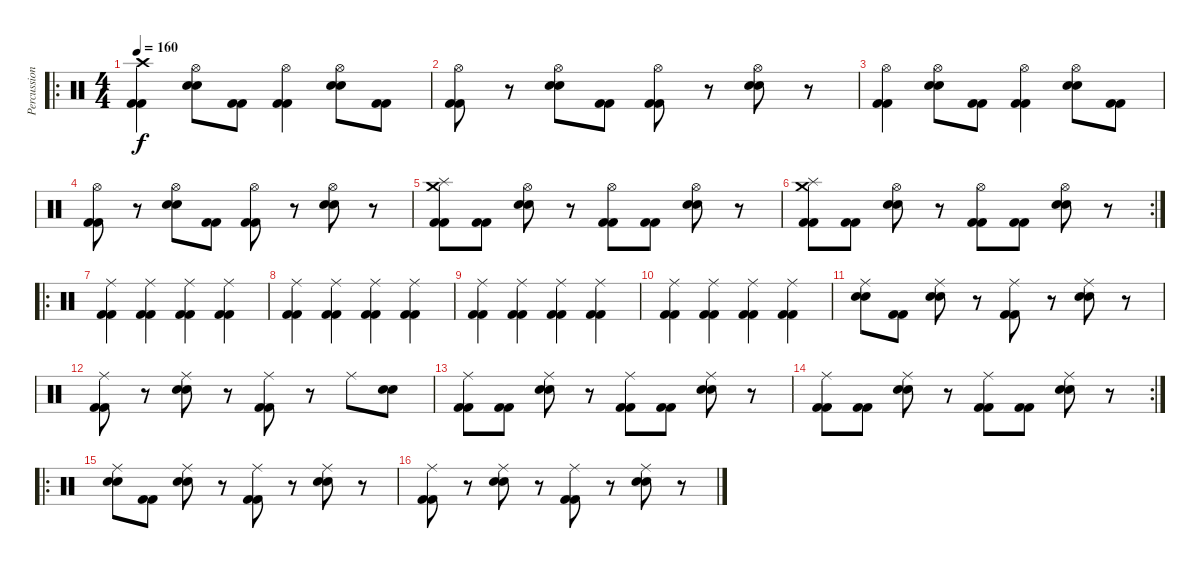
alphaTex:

\track ("Percussion" "Percussion") {instrument percussion}
\staff {score}
\articulation defaults
\ro
\ts (4 4)
\tempo 160
\clef neutral
\ks c
("Crash high (hit)" "Kick (hit) 2" "Kick (hit) 2").4{dy f} ("Hi-Hat (open)" "Snare (hit) 2" "Snare (hit) 2").8 ("Kick (hit) 2" "Kick (hit) 2").8 ("Hi-Hat (open)" "Kick (hit) 2" "Kick (hit) 2").4 ("Hi-Hat (open)" "Snare (hit) 2" "Snare (hit) 2").8 ("Kick (hit) 2" "Kick (hit) 2").8 |
("Hi-Hat (open)" "Kick (hit) 2" "Kick (hit) 2").8 r.8 ("Hi-Hat (open)" "Snare (hit) 2" "Snare (hit) 2").8 ("Kick (hit) 2" "Kick (hit) 2").8 ("Hi-Hat (open)" "Kick (hit) 2" "Kick (hit) 2").8 r.8 ("Hi-Hat (open)" "Snare (hit) 2" "Snare (hit) 2").8 r.8 |
("Hi-Hat (open)" "Kick (hit) 2" "Kick (hit) 2").4 ("Hi-Hat (open)" "Snare (hit) 2" "Snare (hit) 2").8 ("Kick (hit) 2" "Kick (hit) 2").8 ("Hi-Hat (open)" "Kick (hit) 2" "Kick (hit) 2").4 ("Hi-Hat (open)" "Snare (hit) 2" "Snare (hit) 2").8 ("Kick (hit) 2" "Kick (hit) 2").8 |
("Hi-Hat (open)" "Kick (hit) 2" "Kick (hit) 2").8 r.8 ("Hi-Hat (open)" "Snare (hit) 2" "Snare (hit) 2").8 ("Kick (hit) 2" "Kick (hit) 2").8 ("Hi-Hat (open)" "Kick (hit) 2" "Kick (hit) 2").8 r.8 ("Hi-Hat (open)" "Snare (hit) 2" "Snare (hit) 2").8 r.8 |
("Crash medium (hit)" "Splash (hit)" "Kick (hit) 2" "Kick (hit) 2").8 ("Kick (hit) 2" "Kick (hit) 2").8 ("Hi-Hat (open)" "Snare (hit) 2" "Snare (hit) 2").8 r.8 ("Hi-Hat (open)" "Kick (hit) 2" "Kick (hit) 2").8 ("Kick (hit) 2" "Kick (hit) 2").8 ("Hi-Hat (open)" "Snare (hit) 2" "Snare (hit) 2").8 r.8 |
\rc 2
("Crash medium (hit)" "Splash (hit)" "Kick (hit) 2" "Kick (hit) 2").8 ("Kick (hit) 2" "Kick (hit) 2").8 ("Hi-Hat (open)" "Snare (hit) 2" "Snare (hit) 2").8 r.8 ("Hi-Hat (open)" "Kick (hit) 2" "Kick (hit) 2").8 ("Kick (hit) 2" "Kick (hit) 2").8 ("Hi-Hat (open)" "Snare (hit) 2" "Snare (hit) 2").8 r.8 |
\ro
("Ride (middle)" "Kick (hit) 2" "Kick (hit) 2").4 ("Ride (middle)" "Kick (hit) 2" "Kick (hit) 2").4 ("Ride (middle)" "Kick (hit) 2" "Kick (hit) 2").4 ("Ride (middle)" "Kick (hit) 2" "Kick (hit) 2").4 |
("Ride (middle)" "Kick (hit) 2" "Kick (hit) 2").4 ("Ride (middle)" "Kick (hit) 2" "Kick (hit) 2").4 ("Ride (middle)" "Kick (hit) 2" "Kick (hit) 2").4 ("Ride (middle)" "Kick (hit) 2" "Kick (hit) 2").4 |
("Ride (middle)" "Kick (hit) 2" "Kick (hit) 2").4 ("Ride (middle)" "Kick (hit) 2" "Kick (hit) 2").4 ("Ride (middle)" "Kick (hit) 2" "Kick (hit) 2").4 ("Ride (middle)" "Kick (hit) 2" "Kick (hit) 2").4 |
("Ride (middle)" "Kick (hit) 2" "Kick (hit) 2").4 ("Ride (middle)" "Kick (hit) 2" "Kick (hit) 2").4 ("Ride (middle)" "Kick (hit) 2" "Kick (hit) 2").4 ("Ride (middle)" "Kick (hit) 2" "Kick (hit) 2").4 |
("Ride (middle)" "Snare (hit) 2" "Snare (hit) 2").8 ("Kick (hit) 2" "Kick (hit) 2").8 ("Ride (middle)" "Snare (hit) 2" "Snare (hit) 2").8 r.8 ("Ride (middle)" "Kick (hit) 2" "Kick (hit) 2").8 r.8 ("Ride (middle)" "Snare (hit) 2" "Snare (hit) 2").8 r.8 |
("Ride (middle)" "Kick (hit) 2" "Kick (hit) 2").8 r.8 ("Ride (middle)" "Snare (hit) 2" "Snare (hit) 2").8 r.8 ("Ride (middle)" "Kick (hit) 2" "Kick (hit) 2").8 r.8 "Ride (middle)".8 ("Snare (hit) 2" "Snare (hit) 2").8 |
("Ride (middle)" "Kick (hit) 2" "Kick (hit) 2").8 ("Kick (hit) 2" "Kick (hit) 2").8 ("Ride (middle)" "Snare (hit) 2" "Snare (hit) 2").8 r.8 ("Ride (middle)" "Kick (hit) 2" "Kick (hit) 2").8 ("Kick (hit) 2" "Kick (hit) 2").8 ("Ride (middle)" "Snare (hit) 2" "Snare (hit) 2").8 r.8 |
\rc 2
("Ride (middle)" "Kick (hit) 2" "Kick (hit) 2").8 ("Kick (hit) 2" "Kick (hit) 2").8 ("Ride (middle)" "Snare (hit) 2" "Snare (hit) 2").8 r.8 ("Ride (middle)" "Kick (hit) 2" "Kick (hit) 2").8 ("Kick (hit) 2" "Kick (hit) 2").8 ("Ride (middle)" "Snare (hit) 2" "Snare (hit) 2").8 r.8 |
\ro
("Ride (middle)" "Snare (hit) 2" "Snare (hit) 2").8 ("Kick (hit) 2" "Kick (hit) 2").8 ("Ride (middle)" "Snare (hit) 2" "Snare (hit) 2").8 r.8 ("Ride (middle)" "Kick (hit) 2" "Kick (hit) 2").8 r.8 ("Ride (middle)" "Snare (hit) 2" "Snare (hit) 2").8 r.8 |
("Ride (middle)" "Kick (hit) 2" "Kick (hit) 2").8 r.8 ("Ride (middle)" "Snare (hit) 2" "Snare (hit) 2").8 r.8 ("Ride (middle)" "Kick (hit) 2" "Kick (hit) 2").8 r.8 ("Ride (middle)" "Snare (hit) 2" "Snare (hit) 2").8 r.8
